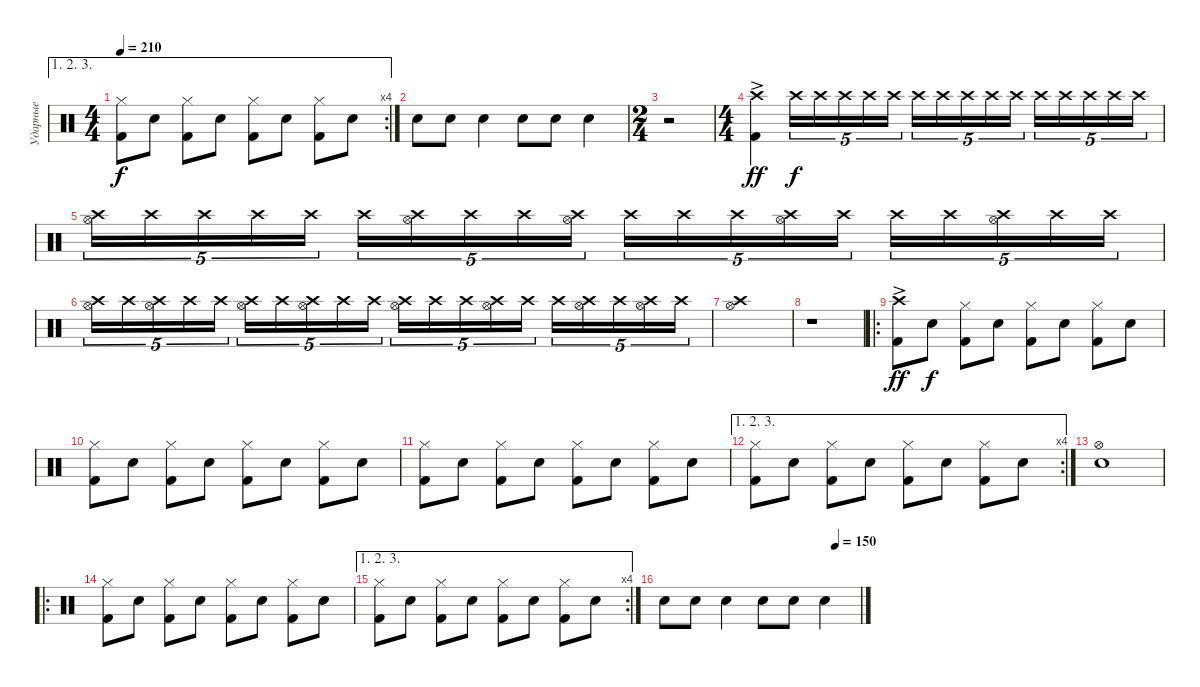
\track ("Ударные" "Ударные") {instrument percussion}
\staff {score}
\articulation defaults
\ae (1 2 3)
\rc 4
\ts (4 4)
\tempo 210
\clef neutral
\ks c
("Kick (hit) 2" "Hi-Hat (closed)").8{dy f} "Snare (hit) 2".8 ("Kick (hit) 2" "Hi-Hat (closed)").8 "Snare (hit) 2".8 ("Kick (hit) 2" "Hi-Hat (closed)").8 "Snare (hit) 2".8 ("Kick (hit) 2" "Hi-Hat (closed)").8 "Snare (hit) 2".8 |
"Snare (hit) 2".8 "Snare (hit) 2".8 "Snare (hit) 2".4 "Snare (hit) 2".8 "Snare (hit) 2".8 "Snare (hit) 2".4 |
\ts (2 4)
r.2 |
\ts (4 4)
("Crash high (hit)"{ac} "Kick (hit) 2").4{dy ff} "Crash high (hit)".16{tu (5 4) dy f} "Crash high (hit)".16{tu (5 4)} "Crash high (hit)".16{tu (5 4)} "Crash high (hit)".16{tu (5 4)} "Crash high (hit)".16{tu (5 4)} "Crash high (hit)".16{tu (5 4)} "Crash high (hit)".16{tu (5 4)} "Crash high (hit)".16{tu (5 4)} "Crash high (hit)".16{tu (5 4)} "Crash high (hit)".16{tu (5 4)} "Crash high (hit)".16{tu (5 4)} "Crash high (hit)".16{tu (5 4)} "Crash high (hit)".16{tu (5 4)} "Crash high (hit)".16{tu (5 4)} "Crash high (hit)".16{tu (5 4)} |
("Hi-Hat (open)" "Crash high (hit)").16{tu (5 4)} "Crash high (hit)".16{tu (5 4)} "Crash high (hit)".16{tu (5 4)} "Crash high (hit)".16{tu (5 4)} "Crash high (hit)".16{tu (5 4)} "Crash high (hit)".16{tu (5 4)} ("Hi-Hat (open)" "Crash high (hit)").16{tu (5 4)} "Crash high (hit)".16{tu (5 4)} "Crash high (hit)".16{tu (5 4)} ("Hi-Hat (open)" "Crash high (hit)").16{tu (5 4)} "Crash high (hit)".16{tu (5 4)} "Crash high (hit)".16{tu (5 4)} "Crash high (hit)".16{tu (5 4)} ("Hi-Hat (open)" "Crash high (hit)").16{tu (5 4)} "Crash high (hit)".16{tu (5 4)} "Crash high (hit)".16{tu (5 4)} "Crash high (hit)".16{tu (5 4)} ("Hi-Hat (open)" "Crash high (hit)").16{tu (5 4)} "Crash high (hit)".16{tu (5 4)} "Crash high (hit)".16{tu (5 4)} |
("Hi-Hat (open)" "Crash high (hit)").16{tu (5 4)} "Crash high (hit)".16{tu (5 4)} ("Hi-Hat (open)" "Crash high (hit)").16{tu (5 4)} "Crash high (hit)".16{tu (5 4)} "Crash high (hit)".16{tu (5 4)} ("Hi-Hat (open)" "Crash high (hit)").16{tu (5 4)} "Crash high (hit)".16{tu (5 4)} ("Hi-Hat (open)" "Crash high (hit)").16{tu (5 4)} "Crash high (hit)".16{tu (5 4)} "Crash high (hit)".16{tu (5 4)} ("Hi-Hat (open)" "Crash high (hit)").16{tu (5 4)} "Crash high (hit)".16{tu (5 4)} "Crash high (hit)".16{tu (5 4)} ("Hi-Hat (open)" "Crash high (hit)").16{tu (5 4)} "Crash high (hit)".16{tu (5 4)} "Crash high (hit)".16{tu (5 4)} ("Hi-Hat (open)" "Crash high (hit)").16{tu (5 4)} "Crash high (hit)".16{tu (5 4)} ("Hi-Hat (open)" "Crash high (hit)").16{tu (5 4)} "Crash high (hit)".16{tu (5 4)} |
("Hi-Hat (open)" "Crash high (hit)").1 |
r.1 |
\ro
("Kick (hit) 2" "Crash high (hit)"{ac}).8{dy ff} "Snare (hit) 2".8{dy f} ("Kick (hit) 2" "Hi-Hat (closed)").8 "Snare (hit) 2".8 ("Kick (hit) 2" "Hi-Hat (closed)").8 "Snare (hit) 2".8 ("Kick (hit) 2" "Hi-Hat (closed)").8 "Snare (hit) 2".8 |
("Kick (hit) 2" "Hi-Hat (closed)").8 "Snare (hit) 2".8 ("Kick (hit) 2" "Hi-Hat (closed)").8 "Snare (hit) 2".8 ("Kick (hit) 2" "Hi-Hat (closed)").8 "Snare (hit) 2".8 ("Kick (hit) 2" "Hi-Hat (closed)").8 "Snare (hit) 2".8 |
("Kick (hit) 2" "Hi-Hat (closed)").8 "Snare (hit) 2".8 ("Kick (hit) 2" "Hi-Hat (closed)").8 "Snare (hit) 2".8 ("Kick (hit) 2" "Hi-Hat (closed)").8 "Snare (hit) 2".8 ("Kick (hit) 2" "Hi-Hat (closed)").8 "Snare (hit) 2".8 |
\ae (1 2 3)
\rc 4
("Kick (hit) 2" "Hi-Hat (closed)").8 "Snare (hit) 2".8 ("Kick (hit) 2" "Hi-Hat (closed)").8 "Snare (hit) 2".8 ("Kick (hit) 2" "Hi-Hat (closed)").8 "Snare (hit) 2".8 ("Kick (hit) 2" "Hi-Hat (closed)").8 "Snare (hit) 2".8 |
("Snare (hit) 2" "Hi-Hat (open)").1 |
\ro
("Kick (hit) 2" "Hi-Hat (closed)").8 "Snare (hit) 2".8 ("Kick (hit) 2" "Hi-Hat (closed)").8 "Snare (hit) 2".8 ("Kick (hit) 2" "Hi-Hat (closed)").8 "Snare (hit) 2".8 ("Kick (hit) 2" "Hi-Hat (closed)").8 "Snare (hit) 2".8 |
\ae (1 2 3)
\rc 4
("Kick (hit) 2" "Hi-Hat (closed)").8 "Snare (hit) 2".8 ("Kick (hit) 2" "Hi-Hat (closed)").8 "Snare (hit) 2".8 ("Kick (hit) 2" "Hi-Hat (closed)").8 "Snare (hit) 2".8 ("Kick (hit) 2" "Hi-Hat (closed)").8 "Snare (hit) 2".8 |
\tempo (150 0.875)
"Snare (hit) 2".8 "Snare (hit) 2".8 "Snare (hit) 2".4 "Snare (hit) 2".8 "Snare (hit) 2".8 "Snare (hit) 2".4
